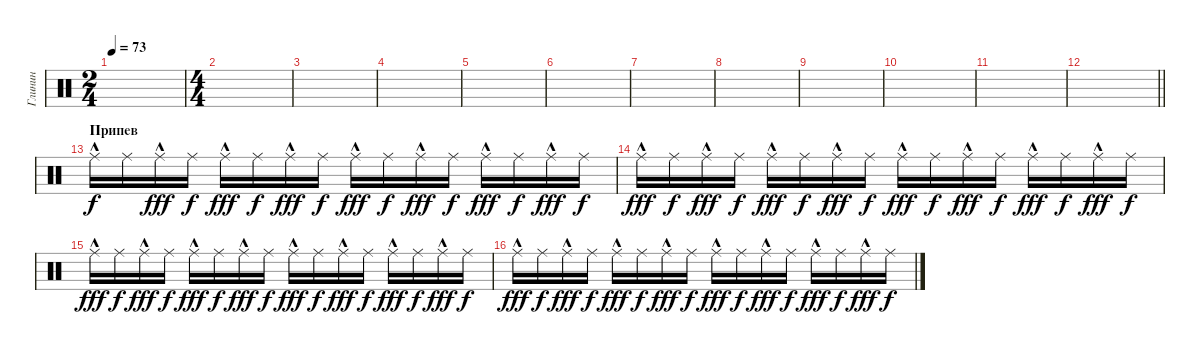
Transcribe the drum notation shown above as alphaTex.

\track ("Глинин" "Глинин") {instrument percussion}
\staff {score}
\articulation defaults
\ts (2 4)
\tempo 73
\clef neutral
\ks c
|
\ts (4 4)
|
|
|
|
|
|
|
|
|
|
\barLineRight lightlight
|
\section ("" "Припев")
"Ride (middle)"{hac}.16 "Ride (middle)".16{dy f} "Ride (middle)"{hac}.16{dy fff} "Ride (middle)".16{dy f} "Ride (middle)"{hac}.16{dy fff} "Ride (middle)".16{dy f} "Ride (middle)"{hac}.16{dy fff} "Ride (middle)".16{dy f} "Ride (middle)"{hac}.16{dy fff} "Ride (middle)".16{dy f} "Ride (middle)"{hac}.16{dy fff} "Ride (middle)".16{dy f} "Ride (middle)"{hac}.16{dy fff} "Ride (middle)".16{dy f} "Ride (middle)"{hac}.16{dy fff} "Ride (middle)".16{dy f} |
"Ride (middle)"{hac}.16{dy fff} "Ride (middle)".16{dy f} "Ride (middle)"{hac}.16{dy fff} "Ride (middle)".16{dy f} "Ride (middle)"{hac}.16{dy fff} "Ride (middle)".16{dy f} "Ride (middle)"{hac}.16{dy fff} "Ride (middle)".16{dy f} "Ride (middle)"{hac}.16{dy fff} "Ride (middle)".16{dy f} "Ride (middle)"{hac}.16{dy fff} "Ride (middle)".16{dy f} "Ride (middle)"{hac}.16{dy fff} "Ride (middle)".16{dy f} "Ride (middle)"{hac}.16{dy fff} "Ride (middle)".16{dy f} |
"Ride (middle)"{hac}.16{dy fff} "Ride (middle)".16{dy f} "Ride (middle)"{hac}.16{dy fff} "Ride (middle)".16{dy f} "Ride (middle)"{hac}.16{dy fff} "Ride (middle)".16{dy f} "Ride (middle)"{hac}.16{dy fff} "Ride (middle)".16{dy f} "Ride (middle)"{hac}.16{dy fff} "Ride (middle)".16{dy f} "Ride (middle)"{hac}.16{dy fff} "Ride (middle)".16{dy f} "Ride (middle)"{hac}.16{dy fff} "Ride (middle)".16{dy f} "Ride (middle)"{hac}.16{dy fff} "Ride (middle)".16{dy f} |
"Ride (middle)"{hac}.16{dy fff} "Ride (middle)".16{dy f} "Ride (middle)"{hac}.16{dy fff} "Ride (middle)".16{dy f} "Ride (middle)"{hac}.16{dy fff} "Ride (middle)".16{dy f} "Ride (middle)"{hac}.16{dy fff} "Ride (middle)".16{dy f} "Ride (middle)"{hac}.16{dy fff} "Ride (middle)".16{dy f} "Ride (middle)"{hac}.16{dy fff} "Ride (middle)".16{dy f} "Ride (middle)"{hac}.16{dy fff} "Ride (middle)".16{dy f} "Ride (middle)"{hac}.16{dy fff} "Ride (middle)".16{dy f}
